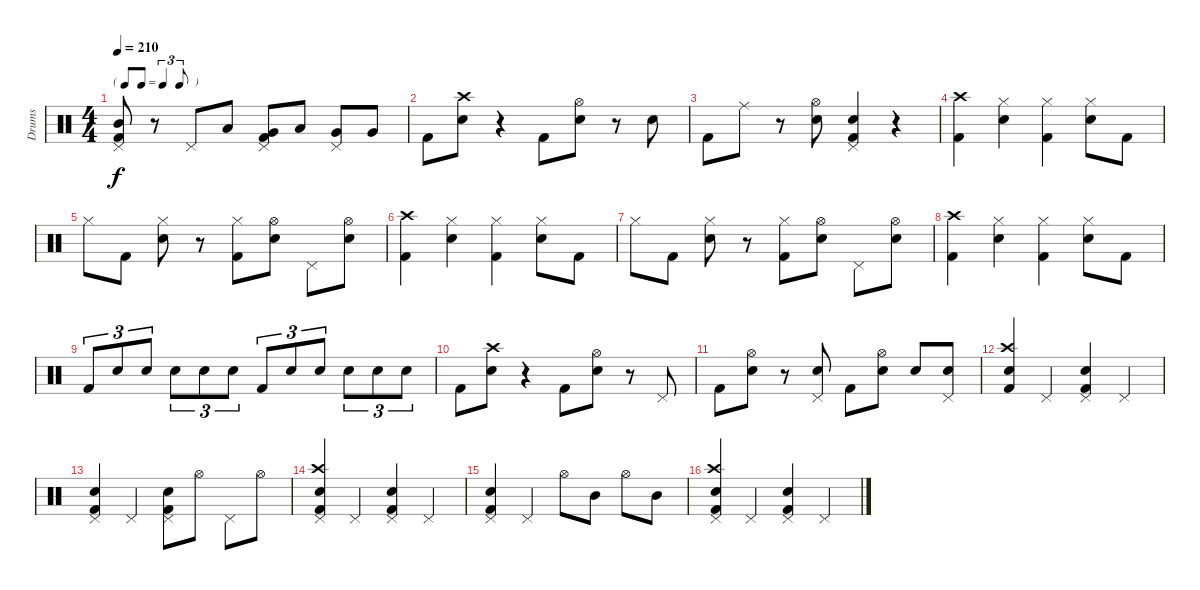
\track ("Drums" "Drums") {instrument percussion}
\staff {score}
\articulation defaults
\ts (4 4)
\tf triplet8th
\tempo 210
\clef neutral
\ks c
("Pedal Hi-Hat (hit)" "Mid Tom (hit)" "Kick (hit) 2").8{dy f} r.8 "Pedal Hi-Hat (hit)".8 "Low Tom (hit)".8 ("Pedal Hi-Hat (hit)" "Very Low Tom (hit)" "Kick (hit) 2").8 "Low Tom (hit)".8 ("Pedal Hi-Hat (hit)" "Very Low Tom (hit)").8 "Very Low Tom (hit)".8 |
"Kick (hit) 2".8 ("Crash high (hit)" "Snare (hit) 2").8 r.4 "Kick (hit) 2".8 ("Hi-Hat (open)" "Snare (hit) 2").8 r.8 "Snare (hit) 2".8 |
"Kick (hit) 2".8 "Ride (middle)".8 r.8 ("Hi-Hat (open)" "Snare (hit) 2").8 ("Pedal Hi-Hat (hit)" "Snare (hit) 2" "Kick (hit) 2").4 r.4 |
("Crash high (hit)" "Kick (hit) 2").4 ("Hi-Hat (closed)" "Snare (hit) 2").4 ("Hi-Hat (closed)" "Kick (hit) 2").4 ("Hi-Hat (closed)" "Snare (hit) 2").8 "Kick (hit) 2".8 |
"Hi-Hat (closed)".8 "Kick (hit) 2".8 ("Hi-Hat (closed)" "Snare (hit) 2").8 r.8 ("Hi-Hat (closed)" "Kick (hit) 2").8 ("Hi-Hat (open)" "Snare (hit) 2").8 "Pedal Hi-Hat (hit)".8 ("Hi-Hat (open)" "Snare (hit) 2").8 |
("Crash high (hit)" "Kick (hit) 2").4 ("Hi-Hat (closed)" "Snare (hit) 2").4 ("Hi-Hat (closed)" "Kick (hit) 2").4 ("Hi-Hat (closed)" "Snare (hit) 2").8 "Kick (hit) 2".8 |
"Hi-Hat (closed)".8 "Kick (hit) 2".8 ("Hi-Hat (closed)" "Snare (hit) 2").8 r.8 ("Hi-Hat (closed)" "Kick (hit) 2").8 ("Hi-Hat (open)" "Snare (hit) 2").8 "Pedal Hi-Hat (hit)".8 ("Hi-Hat (open)" "Snare (hit) 2").8 |
("Crash high (hit)" "Kick (hit) 2").4 ("Hi-Hat (closed)" "Snare (hit) 2").4 ("Hi-Hat (closed)" "Kick (hit) 2").4 ("Hi-Hat (closed)" "Snare (hit) 2").8 "Kick (hit) 2".8 |
"Kick (hit) 2".8{tu (3 2)} "Snare (hit) 2".8{tu (3 2)} "Snare (hit) 2".8{tu (3 2)} "Snare (hit) 2".8{tu (3 2)} "Snare (hit) 2".8{tu (3 2)} "Snare (hit) 2".8{tu (3 2)} "Kick (hit) 2".8{tu (3 2)} "Snare (hit) 2".8{tu (3 2)} "Snare (hit) 2".8{tu (3 2)} "Snare (hit) 2".8{tu (3 2)} "Snare (hit) 2".8{tu (3 2)} "Snare (hit) 2".8{tu (3 2)} |
"Kick (hit) 2".8 ("Crash high (hit)" "Snare (hit) 2").8 r.4 "Kick (hit) 2".8 ("Hi-Hat (open)" "Snare (hit) 2").8 r.8 "Pedal Hi-Hat (hit)".8 |
"Kick (hit) 2".8 ("Hi-Hat (open)" "Snare (hit) 2").8 r.8 ("Pedal Hi-Hat (hit)" "Snare (hit) 2").8 "Kick (hit) 2".8 ("Hi-Hat (open)" "Snare (hit) 2").8 "Snare (hit) 2".8 ("Pedal Hi-Hat (hit)" "Snare (hit) 2").8 |
("Crash high (hit)" "Snare (hit) 2" "Kick (hit) 2").4 "Pedal Hi-Hat (hit)".4 ("Pedal Hi-Hat (hit)" "Snare (hit) 2" "Kick (hit) 2").4 "Pedal Hi-Hat (hit)".4 |
("Pedal Hi-Hat (hit)" "Snare (hit) 2" "Kick (hit) 2").4 "Pedal Hi-Hat (hit)".4 ("Pedal Hi-Hat (hit)" "Snare (hit) 2" "Kick (hit) 2").8 "Hi-Hat (open)".8 "Pedal Hi-Hat (hit)".8 "Hi-Hat (open)".8 |
("Crash high (hit)" "Pedal Hi-Hat (hit)" "Snare (hit) 2" "Kick (hit) 2").4 "Pedal Hi-Hat (hit)".4 ("Pedal Hi-Hat (hit)" "Snare (hit) 2" "Kick (hit) 2").4 "Pedal Hi-Hat (hit)".4 |
("Pedal Hi-Hat (hit)" "Snare (hit) 2" "Kick (hit) 2").4 "Pedal Hi-Hat (hit)".4 "Hi-Hat (open)".8 "Mid Tom (hit)".8 "Hi-Hat (open)".8 "Mid Tom (hit)".8 |
("Crash high (hit)" "Pedal Hi-Hat (hit)" "Snare (hit) 2" "Kick (hit) 2").4 "Pedal Hi-Hat (hit)".4 ("Pedal Hi-Hat (hit)" "Snare (hit) 2" "Kick (hit) 2").4 "Pedal Hi-Hat (hit)".4
